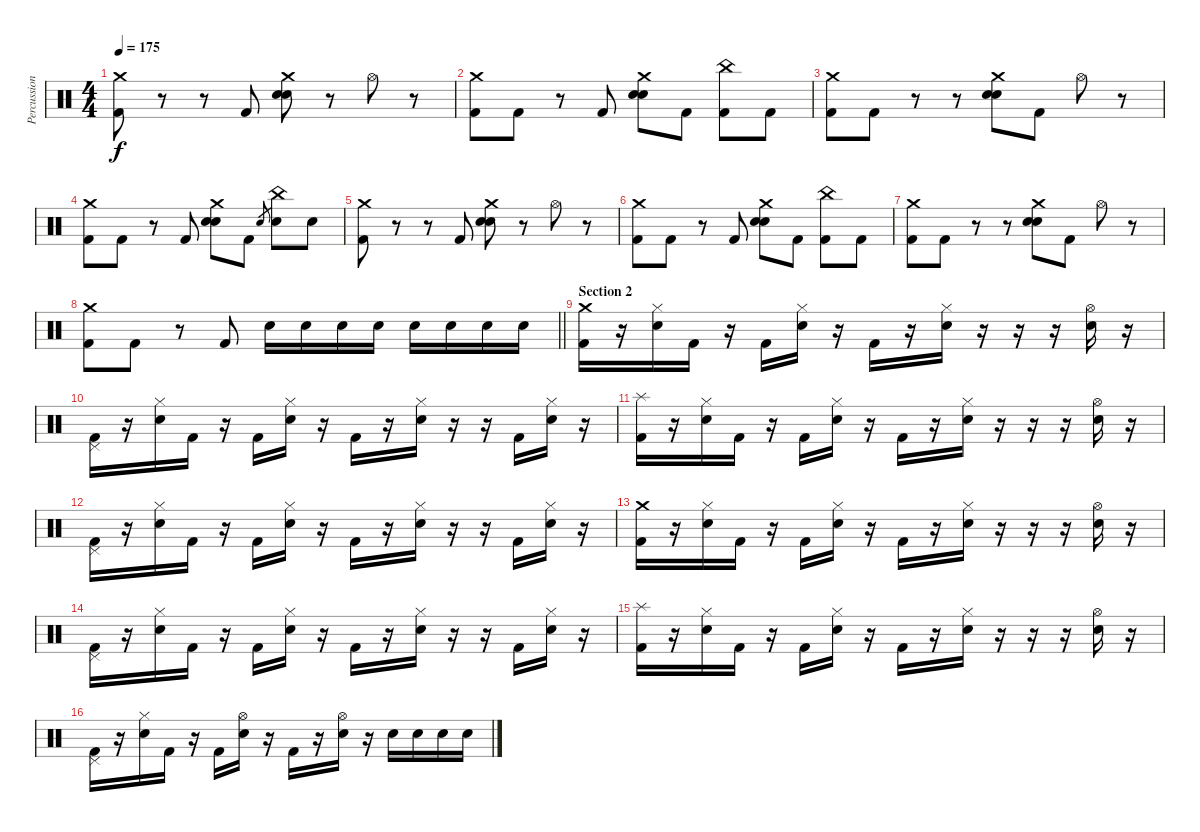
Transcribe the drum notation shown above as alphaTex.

\track ("Percussion" "Percussion") {instrument percussion}
\staff {score}
\articulation defaults
\ts (4 4)
\tempo 175
\clef neutral
\ks c
("Crash medium (hit)" "Kick (hit) 2").8{dy f} r.8 r.8 "Kick (hit) 2".8 ("Crash medium (hit)" "Snare (hit) 2" "Electric Snare (hit)").8 r.8 "Hi-Hat (open)".8 r.8 |
("Crash medium (hit)" "Kick (hit) 2").8 "Kick (hit) 2".8 r.8 "Kick (hit) 2".8 ("Crash medium (hit)" "Snare (hit) 2" "Electric Snare (hit)").8 "Kick (hit) 2".8 ("China (hit)" "Kick (hit) 2").8 "Kick (hit) 2".8 |
("Crash medium (hit)" "Kick (hit) 2").8 "Kick (hit) 2".8 r.8 r.8 ("Crash medium (hit)" "Snare (hit) 2" "Electric Snare (hit)").8 "Kick (hit) 2".8 "Hi-Hat (open)".8 r.8 |
("Crash medium (hit)" "Kick (hit) 2").8 "Kick (hit) 2".8 r.8 "Kick (hit) 2".8 ("Crash medium (hit)" "Snare (hit) 2" "Electric Snare (hit)").8 "Kick (hit) 2".8 "Electric Snare (hit)".8{gr} ("China (hit)" "Electric Snare (hit)").8 "Electric Snare (hit)".8 |
("Crash medium (hit)" "Kick (hit) 2").8 r.8 r.8 "Kick (hit) 2".8 ("Crash medium (hit)" "Snare (hit) 2" "Electric Snare (hit)").8 r.8 "Hi-Hat (open)".8 r.8 |
("Crash medium (hit)" "Kick (hit) 2").8 "Kick (hit) 2".8 r.8 "Kick (hit) 2".8 ("Crash medium (hit)" "Snare (hit) 2" "Electric Snare (hit)").8 "Kick (hit) 2".8 ("China (hit)" "Kick (hit) 2").8 "Kick (hit) 2".8 |
("Crash medium (hit)" "Kick (hit) 2").8 "Kick (hit) 2".8 r.8 r.8 ("Crash medium (hit)" "Snare (hit) 2" "Electric Snare (hit)").8 "Kick (hit) 2".8 "Hi-Hat (open)".8 r.8 |
\barLineRight lightlight
("Crash medium (hit)" "Kick (hit) 2").8 "Kick (hit) 2".8 r.8 "Kick (hit) 2".8 "Electric Snare (hit)".16 "Electric Snare (hit)".16 "Electric Snare (hit)".16 "Electric Snare (hit)".16 "Electric Snare (hit)".16 "Electric Snare (hit)".16 "Electric Snare (hit)".16 "Electric Snare (hit)".16 |
\section ("" "Section 2")
("Crash medium (hit)" "Kick (hit) 2").16 r.16 ("Hi-Hat (closed)" "Electric Snare (hit)").16 "Kick (hit) 2".16 r.16 "Kick (hit) 2".16 ("Hi-Hat (closed)" "Electric Snare (hit)").16 r.16 "Kick (hit) 2".16 r.16 ("Hi-Hat (closed)" "Electric Snare (hit)").16 r.16 r.16 r.16 ("Hi-Hat (open)" "Electric Snare (hit)").16 r.16 |
("Pedal Hi-Hat (hit)" "Kick (hit) 2").16 r.16 ("Hi-Hat (closed)" "Electric Snare (hit)").16 "Kick (hit) 2".16 r.16 "Kick (hit) 2".16 ("Hi-Hat (closed)" "Electric Snare (hit)").16 r.16 "Kick (hit) 2".16 r.16 ("Hi-Hat (closed)" "Electric Snare (hit)").16 r.16 r.16 "Kick (hit) 2".16 ("Hi-Hat (closed)" "Electric Snare (hit)").16 r.16 |
("Splash (hit)" "Kick (hit) 2").16 r.16 ("Hi-Hat (closed)" "Electric Snare (hit)").16 "Kick (hit) 2".16 r.16 "Kick (hit) 2".16 ("Hi-Hat (closed)" "Electric Snare (hit)").16 r.16 "Kick (hit) 2".16 r.16 ("Hi-Hat (closed)" "Electric Snare (hit)").16 r.16 r.16 r.16 ("Hi-Hat (open)" "Electric Snare (hit)").16 r.16 |
("Pedal Hi-Hat (hit)" "Kick (hit) 2").16 r.16 ("Hi-Hat (closed)" "Electric Snare (hit)").16 "Kick (hit) 2".16 r.16 "Kick (hit) 2".16 ("Hi-Hat (closed)" "Electric Snare (hit)").16 r.16 "Kick (hit) 2".16 r.16 ("Hi-Hat (closed)" "Electric Snare (hit)").16 r.16 r.16 "Kick (hit) 2".16 ("Hi-Hat (closed)" "Electric Snare (hit)").16 r.16 |
("Crash medium (hit)" "Kick (hit) 2").16 r.16 ("Hi-Hat (closed)" "Electric Snare (hit)").16 "Kick (hit) 2".16 r.16 "Kick (hit) 2".16 ("Hi-Hat (closed)" "Electric Snare (hit)").16 r.16 "Kick (hit) 2".16 r.16 ("Hi-Hat (closed)" "Electric Snare (hit)").16 r.16 r.16 r.16 ("Hi-Hat (open)" "Electric Snare (hit)").16 r.16 |
("Pedal Hi-Hat (hit)" "Kick (hit) 2").16 r.16 ("Hi-Hat (closed)" "Electric Snare (hit)").16 "Kick (hit) 2".16 r.16 "Kick (hit) 2".16 ("Hi-Hat (closed)" "Electric Snare (hit)").16 r.16 "Kick (hit) 2".16 r.16 ("Hi-Hat (closed)" "Electric Snare (hit)").16 r.16 r.16 "Kick (hit) 2".16 ("Hi-Hat (closed)" "Electric Snare (hit)").16 r.16 |
("Splash (hit)" "Kick (hit) 2").16 r.16 ("Hi-Hat (closed)" "Electric Snare (hit)").16 "Kick (hit) 2".16 r.16 "Kick (hit) 2".16 ("Hi-Hat (closed)" "Electric Snare (hit)").16 r.16 "Kick (hit) 2".16 r.16 ("Hi-Hat (closed)" "Electric Snare (hit)").16 r.16 r.16 r.16 ("Hi-Hat (open)" "Electric Snare (hit)").16 r.16 |
("Pedal Hi-Hat (hit)" "Kick (hit) 2").16 r.16 ("Hi-Hat (closed)" "Electric Snare (hit)").16 "Kick (hit) 2".16 r.16 "Kick (hit) 2".16 ("Hi-Hat (open)" "Electric Snare (hit)").16 r.16 "Kick (hit) 2".16 r.16 ("Hi-Hat (open)" "Electric Snare (hit)").16 r.16 "Electric Snare (hit)".16 "Electric Snare (hit)".16 "Electric Snare (hit)".16 "Electric Snare (hit)".16
